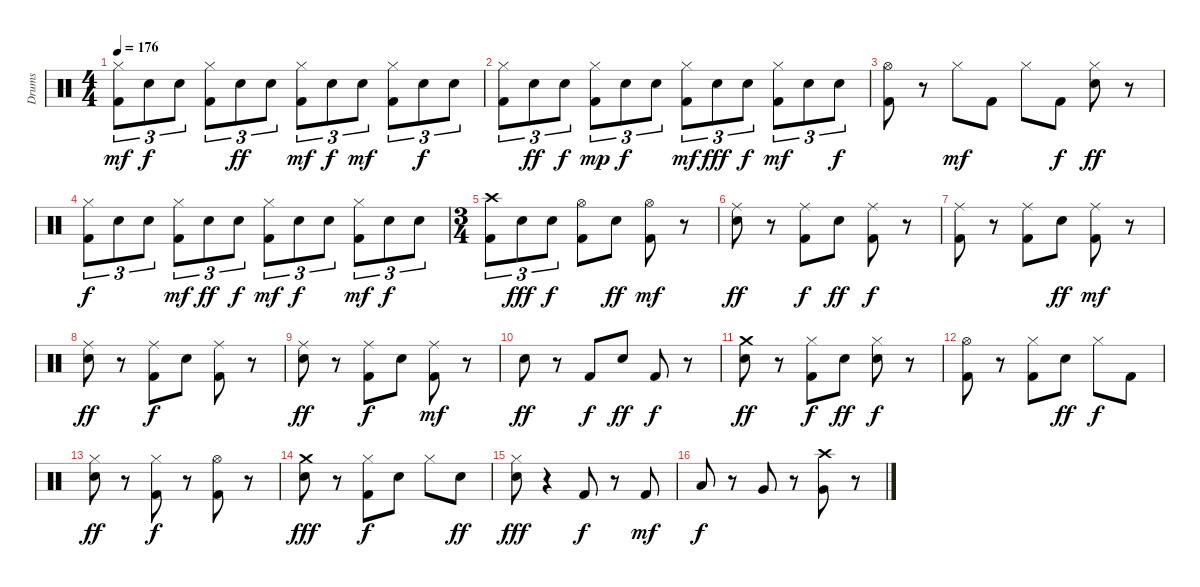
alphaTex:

\track ("Drums" "Drums") {instrument percussion}
\staff {score}
\articulation defaults
\ts (4 4)
\tempo 176
\clef neutral
\ks c
("Hi-Hat (closed)" "Kick (hit) 2").8{tu (3 2) dy mf balance 13} "Snare (hit) 2".8{tu (3 2) dy f balance 12} "Snare (hit) 2".8{tu (3 2) balance 12} ("Hi-Hat (closed)" "Kick (hit) 2").8{tu (3 2) balance 11} "Snare (hit) 2".8{tu (3 2) dy ff balance 10} "Snare (hit) 2".8{tu (3 2) balance 10} ("Hi-Hat (closed)" "Kick (hit) 2").8{tu (3 2) dy mf balance 9} "Snare (hit) 2".8{tu (3 2) dy f balance 8} "Snare (hit) 2".8{tu (3 2) dy mf balance 8} ("Hi-Hat (closed)" "Kick (hit) 2").8{tu (3 2)} "Snare (hit) 2".8{tu (3 2) dy f} "Snare (hit) 2".8{tu (3 2)} |
("Hi-Hat (closed)" "Kick (hit) 2").8{tu (3 2)} "Snare (hit) 2".8{tu (3 2) dy ff} "Snare (hit) 2".8{tu (3 2) dy f} ("Hi-Hat (closed)" "Kick (hit) 2").8{tu (3 2) dy mp} "Snare (hit) 2".8{tu (3 2) dy f} "Snare (hit) 2".8{tu (3 2)} ("Hi-Hat (closed)" "Kick (hit) 2").8{tu (3 2) dy mf} "Snare (hit) 2".8{tu (3 2) dy fff} "Snare (hit) 2".8{tu (3 2) dy f} ("Hi-Hat (closed)" "Kick (hit) 2").8{tu (3 2) dy mf} "Snare (hit) 2".8{tu (3 2)} "Snare (hit) 2".8{tu (3 2) dy f} |
("Hi-Hat (open)" "Kick (hit) 2").8 r.8 "Hi-Hat (closed)".8{dy mf} "Kick (hit) 2".8 "Hi-Hat (closed)".8 "Kick (hit) 2".8{dy f} ("Hi-Hat (closed)" "Snare (hit) 2").8{dy ff} r.8 |
("Hi-Hat (closed)" "Kick (hit) 2").8{tu (3 2) dy f} "Snare (hit) 2".8{tu (3 2)} "Snare (hit) 2".8{tu (3 2)} ("Hi-Hat (closed)" "Kick (hit) 2").8{tu (3 2) dy mf} "Snare (hit) 2".8{tu (3 2) dy ff} "Snare (hit) 2".8{tu (3 2) dy f} ("Hi-Hat (closed)" "Kick (hit) 2").8{tu (3 2) dy mf} "Snare (hit) 2".8{tu (3 2) dy f} "Snare (hit) 2".8{tu (3 2)} ("Hi-Hat (closed)" "Kick (hit) 2").8{tu (3 2) dy mf} "Snare (hit) 2".8{tu (3 2) dy f} "Snare (hit) 2".8{tu (3 2)} |
\ts (3 4)
("Crash high (hit)" "Kick (hit) 2").8{tu (3 2)} "Snare (hit) 2".8{tu (3 2) dy fff} "Snare (hit) 2".8{tu (3 2) dy f} ("Hi-Hat (open)" "Kick (hit) 2").8 "Snare (hit) 2".8{dy ff} ("Hi-Hat (open)" "Kick (hit) 2").8{dy mf} r.8 |
("Ride (middle)" "Snare (hit) 2").8{dy ff} r.8 ("Ride (middle)" "Kick (hit) 2").8{dy f} "Snare (hit) 2".8{dy ff} ("Ride (middle)" "Kick (hit) 2").8{dy f} r.8 |
("Ride (middle)" "Kick (hit) 2").8 r.8 ("Ride (middle)" "Kick (hit) 2").8 "Snare (hit) 2".8{dy ff} ("Ride (middle)" "Kick (hit) 2").8{dy mf} r.8 |
("Ride (middle)" "Snare (hit) 2").8{dy ff} r.8 ("Ride (middle)" "Kick (hit) 2").8{dy f} "Snare (hit) 2".8 ("Ride (middle)" "Kick (hit) 2").8 r.8 |
("Ride (middle)" "Snare (hit) 2").8{dy ff} r.8 ("Ride (middle)" "Kick (hit) 2").8{dy f} "Snare (hit) 2".8 ("Ride (middle)" "Kick (hit) 2").8{dy mf} r.8 |
"Snare (hit) 2".8{dy ff} r.8 "Kick (hit) 2".8{dy f} "Snare (hit) 2".8{dy ff} "Kick (hit) 2".8{dy f} r.8 |
("Crash medium (hit)" "Snare (hit) 2").8{dy ff} r.8 ("Hi-Hat (closed)" "Kick (hit) 2").8{dy f} "Snare (hit) 2".8{dy ff} ("Hi-Hat (closed)" "Snare (hit) 2").8{dy f} r.8 |
("Hi-Hat (open)" "Kick (hit) 2").8 r.8 ("Hi-Hat (closed)" "Kick (hit) 2").8 "Snare (hit) 2".8{dy ff} "Hi-Hat (closed)".8{dy f} "Kick (hit) 2".8 |
("Hi-Hat (closed)" "Snare (hit) 2").8{dy ff} r.8 ("Hi-Hat (closed)" "Kick (hit) 2").8{dy f} r.8 ("Hi-Hat (open)" "Kick (hit) 2").8 r.8 |
("Crash medium (hit)" "Snare (hit) 2").8{dy fff} r.8 ("Hi-Hat (closed)" "Kick (hit) 2").8{dy f} "Snare (hit) 2".8 "Hi-Hat (closed)".8 "Snare (hit) 2".8{dy ff} |
("Hi-Hat (closed)" "Snare (hit) 2").8{dy fff} r.4 "Kick (hit) 2".8{dy f} r.8 "Kick (hit) 2".8{dy mf} |
"Low Tom (hit)".8{dy f} r.8 "Very Low Tom (hit)".8 r.8 ("Crash high (hit)" "Very Low Tom (hit)").8 r.8
